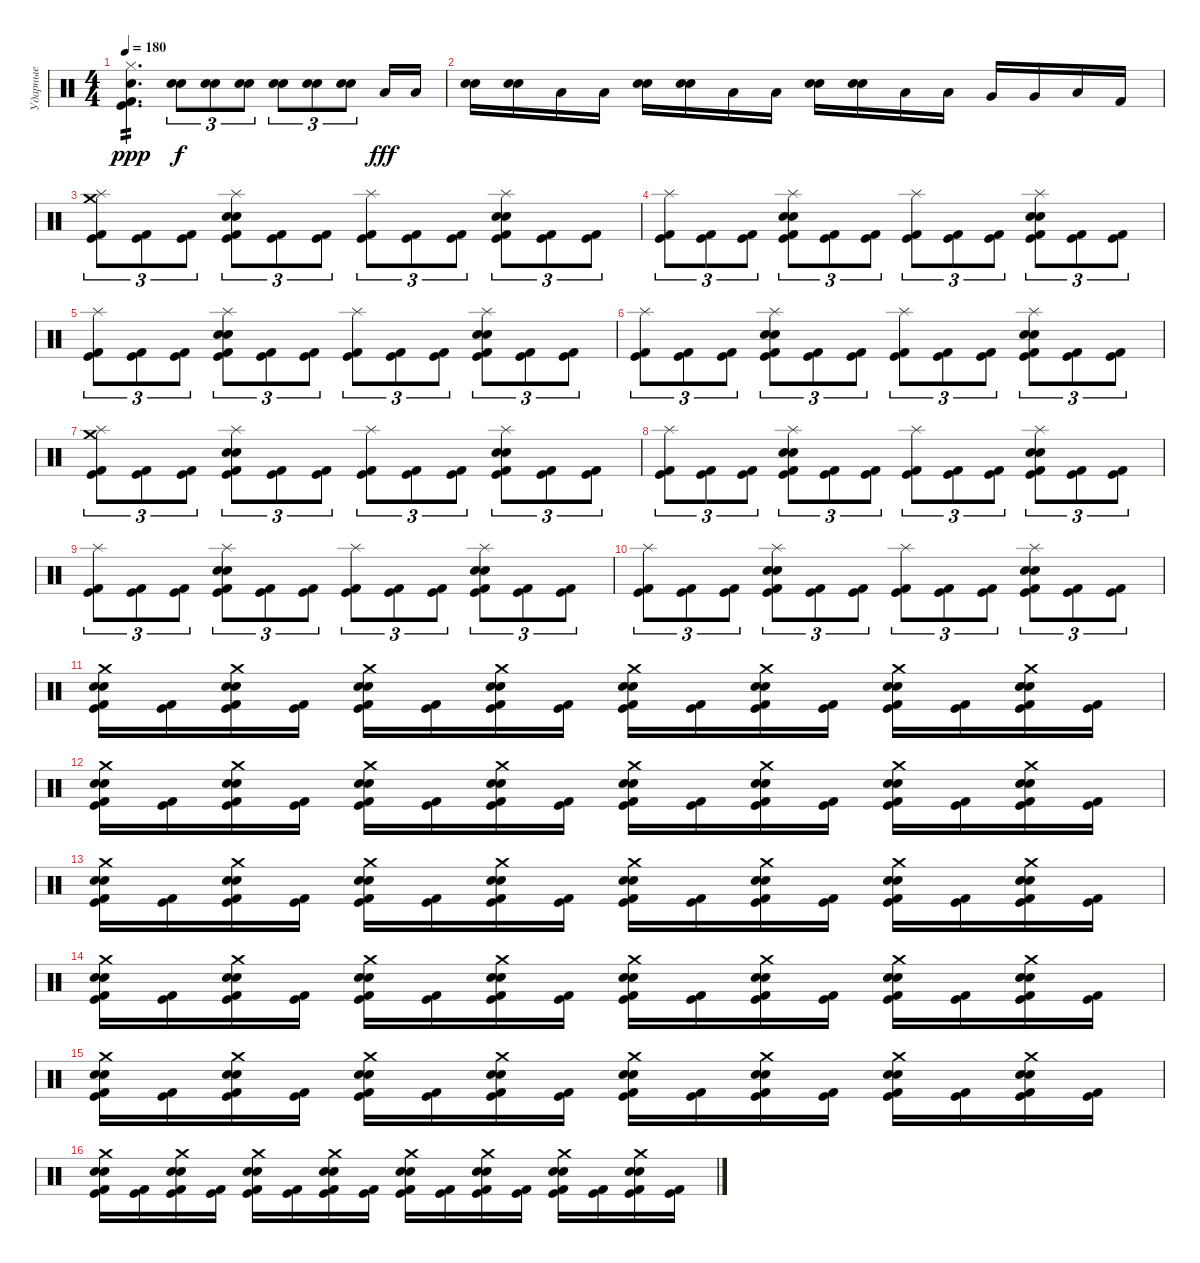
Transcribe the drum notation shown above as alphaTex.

\track ("Ударные" "Ударные") {instrument percussion}
\staff {score}
\articulation defaults
\ts (4 4)
\tempo 180
\clef neutral
\ks c
("Kick (hit)" "Kick (hit) 2" "Electric Snare (hit)" "Hi-Hat (closed)").4{d tp 2 dy ppp} ("Electric Snare (hit)" "Snare (hit) 2").8{tu (3 2) dy f} ("Electric Snare (hit)" "Snare (hit) 2").8{tu (3 2)} ("Electric Snare (hit)" "Snare (hit) 2").8{tu (3 2)} ("Electric Snare (hit)" "Snare (hit) 2").8{tu (3 2)} ("Electric Snare (hit)" "Snare (hit) 2").8{tu (3 2)} ("Electric Snare (hit)" "Snare (hit) 2").8{tu (3 2)} "Low Tom (hit)".16{dy fff} "Low Tom (hit)".16 |
("Electric Snare (hit)" "Snare (hit) 2").16 ("Electric Snare (hit)" "Snare (hit) 2").16 "Low Tom (hit)".16 "Low Tom (hit)".16 ("Electric Snare (hit)" "Snare (hit) 2").16 ("Electric Snare (hit)" "Snare (hit) 2").16 "Low Tom (hit)".16 "Low Tom (hit)".16 ("Electric Snare (hit)" "Snare (hit) 2").16 ("Electric Snare (hit)" "Snare (hit) 2").16 "Low Tom (hit)".16 "Low Tom (hit)".16 "Very Low Tom (hit)".16 "Very Low Tom (hit)".16 "Low Floor Tom (hit)".16 "Kick (hit) 2".16 |
("Kick (hit) 2" "Kick (hit)" "Splash (hit)" "Crash medium (hit)").8{tu (3 2)} ("Kick (hit) 2" "Kick (hit)").8{tu (3 2)} ("Kick (hit) 2" "Kick (hit)").8{tu (3 2)} ("Kick (hit) 2" "Kick (hit)" "Electric Snare (hit)" "Snare (hit) 2" "Splash (hit)").8{tu (3 2)} ("Kick (hit) 2" "Kick (hit)").8{tu (3 2)} ("Kick (hit) 2" "Kick (hit)").8{tu (3 2)} ("Kick (hit) 2" "Kick (hit)" "Splash (hit)").8{tu (3 2)} ("Kick (hit) 2" "Kick (hit)").8{tu (3 2)} ("Kick (hit) 2" "Kick (hit)").8{tu (3 2)} ("Kick (hit) 2" "Kick (hit)" "Electric Snare (hit)" "Snare (hit) 2" "Splash (hit)").8{tu (3 2)} ("Kick (hit) 2" "Kick (hit)").8{tu (3 2)} ("Kick (hit) 2" "Kick (hit)").8{tu (3 2)} |
("Kick (hit) 2" "Kick (hit)" "Splash (hit)").8{tu (3 2)} ("Kick (hit) 2" "Kick (hit)").8{tu (3 2)} ("Kick (hit) 2" "Kick (hit)").8{tu (3 2)} ("Kick (hit) 2" "Kick (hit)" "Electric Snare (hit)" "Snare (hit) 2" "Splash (hit)").8{tu (3 2)} ("Kick (hit) 2" "Kick (hit)").8{tu (3 2)} ("Kick (hit) 2" "Kick (hit)").8{tu (3 2)} ("Kick (hit) 2" "Kick (hit)" "Splash (hit)").8{tu (3 2)} ("Kick (hit) 2" "Kick (hit)").8{tu (3 2)} ("Kick (hit) 2" "Kick (hit)").8{tu (3 2)} ("Kick (hit) 2" "Kick (hit)" "Electric Snare (hit)" "Snare (hit) 2" "Splash (hit)").8{tu (3 2)} ("Kick (hit) 2" "Kick (hit)").8{tu (3 2)} ("Kick (hit) 2" "Kick (hit)").8{tu (3 2)} |
("Kick (hit) 2" "Kick (hit)" "Splash (hit)").8{tu (3 2)} ("Kick (hit) 2" "Kick (hit)").8{tu (3 2)} ("Kick (hit) 2" "Kick (hit)").8{tu (3 2)} ("Kick (hit) 2" "Kick (hit)" "Electric Snare (hit)" "Snare (hit) 2" "Splash (hit)").8{tu (3 2)} ("Kick (hit) 2" "Kick (hit)").8{tu (3 2)} ("Kick (hit) 2" "Kick (hit)").8{tu (3 2)} ("Kick (hit) 2" "Kick (hit)" "Splash (hit)").8{tu (3 2)} ("Kick (hit) 2" "Kick (hit)").8{tu (3 2)} ("Kick (hit) 2" "Kick (hit)").8{tu (3 2)} ("Kick (hit) 2" "Kick (hit)" "Electric Snare (hit)" "Snare (hit) 2" "Splash (hit)").8{tu (3 2)} ("Kick (hit) 2" "Kick (hit)").8{tu (3 2)} ("Kick (hit) 2" "Kick (hit)").8{tu (3 2)} |
("Kick (hit) 2" "Kick (hit)" "Splash (hit)").8{tu (3 2)} ("Kick (hit) 2" "Kick (hit)").8{tu (3 2)} ("Kick (hit) 2" "Kick (hit)").8{tu (3 2)} ("Kick (hit) 2" "Kick (hit)" "Electric Snare (hit)" "Snare (hit) 2" "Splash (hit)").8{tu (3 2)} ("Kick (hit) 2" "Kick (hit)").8{tu (3 2)} ("Kick (hit) 2" "Kick (hit)").8{tu (3 2)} ("Kick (hit) 2" "Kick (hit)" "Splash (hit)").8{tu (3 2)} ("Kick (hit) 2" "Kick (hit)").8{tu (3 2)} ("Kick (hit) 2" "Kick (hit)").8{tu (3 2)} ("Kick (hit) 2" "Kick (hit)" "Electric Snare (hit)" "Snare (hit) 2" "Splash (hit)").8{tu (3 2)} ("Kick (hit) 2" "Kick (hit)").8{tu (3 2)} ("Kick (hit) 2" "Kick (hit)").8{tu (3 2)} |
("Kick (hit) 2" "Kick (hit)" "Splash (hit)" "Crash medium (hit)").8{tu (3 2)} ("Kick (hit) 2" "Kick (hit)").8{tu (3 2)} ("Kick (hit) 2" "Kick (hit)").8{tu (3 2)} ("Kick (hit) 2" "Kick (hit)" "Electric Snare (hit)" "Snare (hit) 2" "Splash (hit)").8{tu (3 2)} ("Kick (hit) 2" "Kick (hit)").8{tu (3 2)} ("Kick (hit) 2" "Kick (hit)").8{tu (3 2)} ("Kick (hit) 2" "Kick (hit)" "Splash (hit)").8{tu (3 2)} ("Kick (hit) 2" "Kick (hit)").8{tu (3 2)} ("Kick (hit) 2" "Kick (hit)").8{tu (3 2)} ("Kick (hit) 2" "Kick (hit)" "Electric Snare (hit)" "Snare (hit) 2" "Splash (hit)").8{tu (3 2)} ("Kick (hit) 2" "Kick (hit)").8{tu (3 2)} ("Kick (hit) 2" "Kick (hit)").8{tu (3 2)} |
("Kick (hit) 2" "Kick (hit)" "Splash (hit)").8{tu (3 2)} ("Kick (hit) 2" "Kick (hit)").8{tu (3 2)} ("Kick (hit) 2" "Kick (hit)").8{tu (3 2)} ("Kick (hit) 2" "Kick (hit)" "Electric Snare (hit)" "Snare (hit) 2" "Splash (hit)").8{tu (3 2)} ("Kick (hit) 2" "Kick (hit)").8{tu (3 2)} ("Kick (hit) 2" "Kick (hit)").8{tu (3 2)} ("Kick (hit) 2" "Kick (hit)" "Splash (hit)").8{tu (3 2)} ("Kick (hit) 2" "Kick (hit)").8{tu (3 2)} ("Kick (hit) 2" "Kick (hit)").8{tu (3 2)} ("Kick (hit) 2" "Kick (hit)" "Electric Snare (hit)" "Snare (hit) 2" "Splash (hit)").8{tu (3 2)} ("Kick (hit) 2" "Kick (hit)").8{tu (3 2)} ("Kick (hit) 2" "Kick (hit)").8{tu (3 2)} |
("Kick (hit) 2" "Kick (hit)" "Splash (hit)").8{tu (3 2)} ("Kick (hit) 2" "Kick (hit)").8{tu (3 2)} ("Kick (hit) 2" "Kick (hit)").8{tu (3 2)} ("Kick (hit) 2" "Kick (hit)" "Electric Snare (hit)" "Snare (hit) 2" "Splash (hit)").8{tu (3 2)} ("Kick (hit) 2" "Kick (hit)").8{tu (3 2)} ("Kick (hit) 2" "Kick (hit)").8{tu (3 2)} ("Kick (hit) 2" "Kick (hit)" "Splash (hit)").8{tu (3 2)} ("Kick (hit) 2" "Kick (hit)").8{tu (3 2)} ("Kick (hit) 2" "Kick (hit)").8{tu (3 2)} ("Kick (hit) 2" "Kick (hit)" "Electric Snare (hit)" "Snare (hit) 2" "Splash (hit)").8{tu (3 2)} ("Kick (hit) 2" "Kick (hit)").8{tu (3 2)} ("Kick (hit) 2" "Kick (hit)").8{tu (3 2)} |
("Kick (hit) 2" "Kick (hit)" "Splash (hit)").8{tu (3 2)} ("Kick (hit) 2" "Kick (hit)").8{tu (3 2)} ("Kick (hit) 2" "Kick (hit)").8{tu (3 2)} ("Kick (hit) 2" "Kick (hit)" "Electric Snare (hit)" "Snare (hit) 2" "Splash (hit)").8{tu (3 2)} ("Kick (hit) 2" "Kick (hit)").8{tu (3 2)} ("Kick (hit) 2" "Kick (hit)").8{tu (3 2)} ("Kick (hit) 2" "Kick (hit)" "Splash (hit)").8{tu (3 2)} ("Kick (hit) 2" "Kick (hit)").8{tu (3 2)} ("Kick (hit) 2" "Kick (hit)").8{tu (3 2)} ("Kick (hit) 2" "Kick (hit)" "Electric Snare (hit)" "Snare (hit) 2" "Splash (hit)").8{tu (3 2)} ("Kick (hit) 2" "Kick (hit)").8{tu (3 2)} ("Kick (hit) 2" "Kick (hit)").8{tu (3 2)} |
("Kick (hit) 2" "Kick (hit)" "Snare (hit) 2" "Electric Snare (hit)" "Crash medium (hit)").16 ("Kick (hit) 2" "Kick (hit)").16 ("Kick (hit) 2" "Kick (hit)" "Snare (hit) 2" "Electric Snare (hit)" "Crash medium (hit)").16 ("Kick (hit) 2" "Kick (hit)").16 ("Kick (hit) 2" "Kick (hit)" "Snare (hit) 2" "Electric Snare (hit)" "Crash medium (hit)").16 ("Kick (hit) 2" "Kick (hit)").16 ("Kick (hit) 2" "Kick (hit)" "Snare (hit) 2" "Electric Snare (hit)" "Crash medium (hit)").16 ("Kick (hit) 2" "Kick (hit)").16 ("Kick (hit) 2" "Kick (hit)" "Snare (hit) 2" "Electric Snare (hit)" "Crash medium (hit)").16 ("Kick (hit) 2" "Kick (hit)").16 ("Kick (hit) 2" "Kick (hit)" "Snare (hit) 2" "Electric Snare (hit)" "Crash medium (hit)").16 ("Kick (hit) 2" "Kick (hit)").16 ("Kick (hit) 2" "Kick (hit)" "Snare (hit) 2" "Electric Snare (hit)" "Crash medium (hit)").16 ("Kick (hit) 2" "Kick (hit)").16 ("Kick (hit) 2" "Kick (hit)" "Snare (hit) 2" "Electric Snare (hit)" "Crash medium (hit)").16 ("Kick (hit) 2" "Kick (hit)").16 |
("Kick (hit) 2" "Kick (hit)" "Snare (hit) 2" "Electric Snare (hit)" "Crash medium (hit)").16 ("Kick (hit) 2" "Kick (hit)").16 ("Kick (hit) 2" "Kick (hit)" "Snare (hit) 2" "Electric Snare (hit)" "Crash medium (hit)").16 ("Kick (hit) 2" "Kick (hit)").16 ("Kick (hit) 2" "Kick (hit)" "Snare (hit) 2" "Electric Snare (hit)" "Crash medium (hit)").16 ("Kick (hit) 2" "Kick (hit)").16 ("Kick (hit) 2" "Kick (hit)" "Snare (hit) 2" "Electric Snare (hit)" "Crash medium (hit)").16 ("Kick (hit) 2" "Kick (hit)").16 ("Kick (hit) 2" "Kick (hit)" "Snare (hit) 2" "Electric Snare (hit)" "Crash medium (hit)").16 ("Kick (hit) 2" "Kick (hit)").16 ("Kick (hit) 2" "Kick (hit)" "Snare (hit) 2" "Electric Snare (hit)" "Crash medium (hit)").16 ("Kick (hit) 2" "Kick (hit)").16 ("Kick (hit) 2" "Kick (hit)" "Snare (hit) 2" "Electric Snare (hit)" "Crash medium (hit)").16 ("Kick (hit) 2" "Kick (hit)").16 ("Kick (hit) 2" "Kick (hit)" "Snare (hit) 2" "Electric Snare (hit)" "Crash medium (hit)").16 ("Kick (hit) 2" "Kick (hit)").16 |
("Kick (hit) 2" "Kick (hit)" "Snare (hit) 2" "Electric Snare (hit)" "Crash medium (hit)").16 ("Kick (hit) 2" "Kick (hit)").16 ("Kick (hit) 2" "Kick (hit)" "Snare (hit) 2" "Electric Snare (hit)" "Crash medium (hit)").16 ("Kick (hit) 2" "Kick (hit)").16 ("Kick (hit) 2" "Kick (hit)" "Snare (hit) 2" "Electric Snare (hit)" "Crash medium (hit)").16 ("Kick (hit) 2" "Kick (hit)").16 ("Kick (hit) 2" "Kick (hit)" "Snare (hit) 2" "Electric Snare (hit)" "Crash medium (hit)").16 ("Kick (hit) 2" "Kick (hit)").16 ("Kick (hit) 2" "Kick (hit)" "Snare (hit) 2" "Electric Snare (hit)" "Crash medium (hit)").16 ("Kick (hit) 2" "Kick (hit)").16 ("Kick (hit) 2" "Kick (hit)" "Snare (hit) 2" "Electric Snare (hit)" "Crash medium (hit)").16 ("Kick (hit) 2" "Kick (hit)").16 ("Kick (hit) 2" "Kick (hit)" "Snare (hit) 2" "Electric Snare (hit)" "Crash medium (hit)").16 ("Kick (hit) 2" "Kick (hit)").16 ("Kick (hit) 2" "Kick (hit)" "Snare (hit) 2" "Electric Snare (hit)" "Crash medium (hit)").16 ("Kick (hit) 2" "Kick (hit)").16 |
("Kick (hit) 2" "Kick (hit)" "Snare (hit) 2" "Electric Snare (hit)" "Crash medium (hit)").16 ("Kick (hit) 2" "Kick (hit)").16 ("Kick (hit) 2" "Kick (hit)" "Snare (hit) 2" "Electric Snare (hit)" "Crash medium (hit)").16 ("Kick (hit) 2" "Kick (hit)").16 ("Kick (hit) 2" "Kick (hit)" "Snare (hit) 2" "Electric Snare (hit)" "Crash medium (hit)").16 ("Kick (hit) 2" "Kick (hit)").16 ("Kick (hit) 2" "Kick (hit)" "Snare (hit) 2" "Electric Snare (hit)" "Crash medium (hit)").16 ("Kick (hit) 2" "Kick (hit)").16 ("Kick (hit) 2" "Kick (hit)" "Snare (hit) 2" "Electric Snare (hit)" "Crash medium (hit)").16 ("Kick (hit) 2" "Kick (hit)").16 ("Kick (hit) 2" "Kick (hit)" "Snare (hit) 2" "Electric Snare (hit)" "Crash medium (hit)").16 ("Kick (hit) 2" "Kick (hit)").16 ("Kick (hit) 2" "Kick (hit)" "Snare (hit) 2" "Electric Snare (hit)" "Crash medium (hit)").16 ("Kick (hit) 2" "Kick (hit)").16 ("Kick (hit) 2" "Kick (hit)" "Snare (hit) 2" "Electric Snare (hit)" "Crash medium (hit)").16 ("Kick (hit) 2" "Kick (hit)").16 |
("Kick (hit) 2" "Kick (hit)" "Snare (hit) 2" "Electric Snare (hit)" "Crash medium (hit)").16 ("Kick (hit) 2" "Kick (hit)").16 ("Kick (hit) 2" "Kick (hit)" "Snare (hit) 2" "Electric Snare (hit)" "Crash medium (hit)").16 ("Kick (hit) 2" "Kick (hit)").16 ("Kick (hit) 2" "Kick (hit)" "Snare (hit) 2" "Electric Snare (hit)" "Crash medium (hit)").16 ("Kick (hit) 2" "Kick (hit)").16 ("Kick (hit) 2" "Kick (hit)" "Snare (hit) 2" "Electric Snare (hit)" "Crash medium (hit)").16 ("Kick (hit) 2" "Kick (hit)").16 ("Kick (hit) 2" "Kick (hit)" "Snare (hit) 2" "Electric Snare (hit)" "Crash medium (hit)").16 ("Kick (hit) 2" "Kick (hit)").16 ("Kick (hit) 2" "Kick (hit)" "Snare (hit) 2" "Electric Snare (hit)" "Crash medium (hit)").16 ("Kick (hit) 2" "Kick (hit)").16 ("Kick (hit) 2" "Kick (hit)" "Snare (hit) 2" "Electric Snare (hit)" "Crash medium (hit)").16 ("Kick (hit) 2" "Kick (hit)").16 ("Kick (hit) 2" "Kick (hit)" "Snare (hit) 2" "Electric Snare (hit)" "Crash medium (hit)").16 ("Kick (hit) 2" "Kick (hit)").16 |
("Kick (hit) 2" "Kick (hit)" "Snare (hit) 2" "Electric Snare (hit)" "Crash medium (hit)").16 ("Kick (hit) 2" "Kick (hit)").16 ("Kick (hit) 2" "Kick (hit)" "Snare (hit) 2" "Electric Snare (hit)" "Crash medium (hit)").16 ("Kick (hit) 2" "Kick (hit)").16 ("Kick (hit) 2" "Kick (hit)" "Snare (hit) 2" "Electric Snare (hit)" "Crash medium (hit)").16 ("Kick (hit) 2" "Kick (hit)").16 ("Kick (hit) 2" "Kick (hit)" "Snare (hit) 2" "Electric Snare (hit)" "Crash medium (hit)").16 ("Kick (hit) 2" "Kick (hit)").16 ("Kick (hit) 2" "Kick (hit)" "Snare (hit) 2" "Electric Snare (hit)" "Crash medium (hit)").16 ("Kick (hit) 2" "Kick (hit)").16 ("Kick (hit) 2" "Kick (hit)" "Snare (hit) 2" "Electric Snare (hit)" "Crash medium (hit)").16 ("Kick (hit) 2" "Kick (hit)").16 ("Kick (hit) 2" "Kick (hit)" "Snare (hit) 2" "Electric Snare (hit)" "Crash medium (hit)").16 ("Kick (hit) 2" "Kick (hit)").16 ("Kick (hit) 2" "Kick (hit)" "Snare (hit) 2" "Electric Snare (hit)" "Crash medium (hit)").16 ("Kick (hit) 2" "Kick (hit)").16
